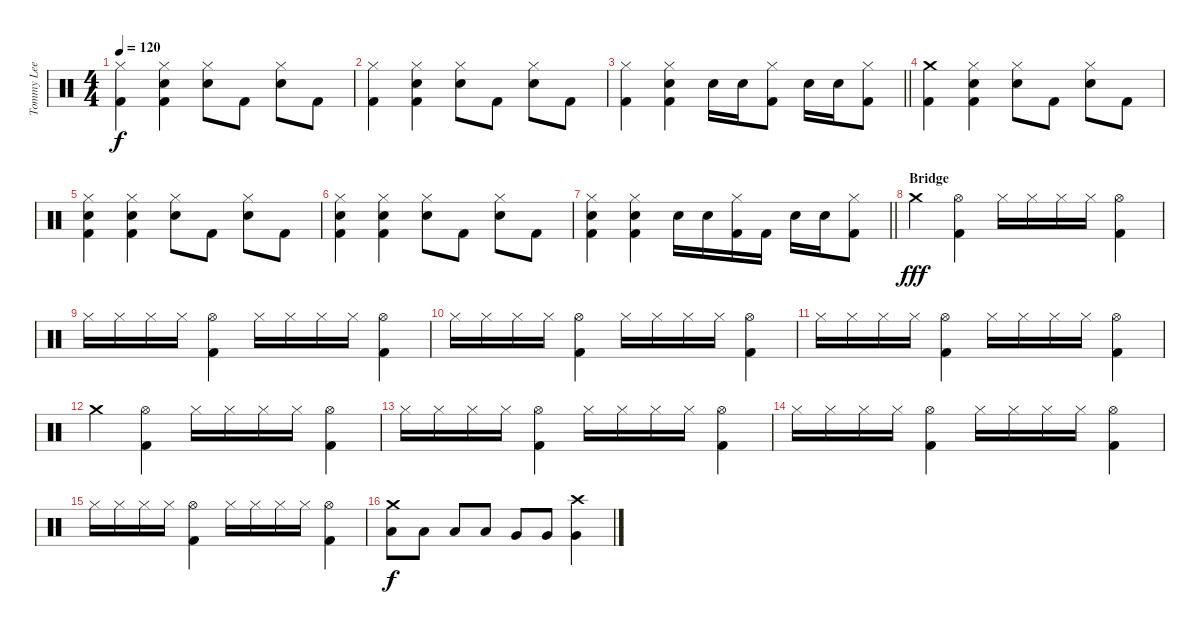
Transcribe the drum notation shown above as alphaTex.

\track ("Tommy Lee - Drums" "Tommy Lee ") {instrument percussion}
\staff {score}
\articulation defaults
\ts (4 4)
\tempo 120
\clef neutral
\ks c
("Hi-Hat (closed)" "Kick (hit) 2").4{dy f} ("Hi-Hat (closed)" "Snare (hit) 2" "Kick (hit) 2").4 ("Hi-Hat (closed)" "Snare (hit) 2").8 "Kick (hit) 2".8 ("Hi-Hat (closed)" "Snare (hit) 2").8 "Kick (hit) 2".8 |
("Hi-Hat (closed)" "Kick (hit) 2").4 ("Hi-Hat (closed)" "Snare (hit) 2" "Kick (hit) 2").4 ("Hi-Hat (closed)" "Snare (hit) 2").8 "Kick (hit) 2".8 ("Hi-Hat (closed)" "Snare (hit) 2").8 "Kick (hit) 2".8 |
\barLineRight lightlight
("Hi-Hat (closed)" "Kick (hit) 2").4 ("Hi-Hat (closed)" "Snare (hit) 2" "Kick (hit) 2").4 "Snare (hit) 2".16 "Snare (hit) 2".16 ("Hi-Hat (closed)" "Kick (hit) 2").8 "Snare (hit) 2".16 "Snare (hit) 2".16 ("Hi-Hat (closed)" "Kick (hit) 2").8 |
("Crash medium (hit)" "Kick (hit) 2").4 ("Hi-Hat (closed)" "Snare (hit) 2" "Kick (hit) 2").4 ("Hi-Hat (closed)" "Snare (hit) 2").8 "Kick (hit) 2".8 ("Hi-Hat (closed)" "Snare (hit) 2").8 "Kick (hit) 2".8 |
("Hi-Hat (closed)" "Snare (hit) 2" "Kick (hit) 2").4 ("Hi-Hat (closed)" "Snare (hit) 2" "Kick (hit) 2").4 ("Hi-Hat (closed)" "Snare (hit) 2").8 "Kick (hit) 2".8 ("Hi-Hat (closed)" "Snare (hit) 2").8 "Kick (hit) 2".8 |
("Hi-Hat (closed)" "Snare (hit) 2" "Kick (hit) 2").4 ("Hi-Hat (closed)" "Snare (hit) 2" "Kick (hit) 2").4 ("Hi-Hat (closed)" "Snare (hit) 2").8 "Kick (hit) 2".8 ("Hi-Hat (closed)" "Snare (hit) 2").8 "Kick (hit) 2".8 |
\barLineRight lightlight
("Hi-Hat (closed)" "Snare (hit) 2" "Kick (hit) 2").4 ("Hi-Hat (closed)" "Snare (hit) 2" "Kick (hit) 2").4 "Snare (hit) 2".16 "Snare (hit) 2".16 ("Hi-Hat (closed)" "Kick (hit) 2").16 "Kick (hit) 2".16 "Snare (hit) 2".16 "Snare (hit) 2".16 ("Hi-Hat (closed)" "Kick (hit) 2").8 |
\section ("" "Bridge")
"Crash medium (hit)".4{dy fff} ("Hi-Hat (open)" "Kick (hit) 2").4 "Hi-Hat (closed)".16 "Hi-Hat (closed)".16 "Hi-Hat (closed)".16 "Hi-Hat (closed)".16 ("Hi-Hat (open)" "Kick (hit) 2").4 |
"Hi-Hat (closed)".16 "Hi-Hat (closed)".16 "Hi-Hat (closed)".16 "Hi-Hat (closed)".16 ("Hi-Hat (open)" "Kick (hit) 2").4 "Hi-Hat (closed)".16 "Hi-Hat (closed)".16 "Hi-Hat (closed)".16 "Hi-Hat (closed)".16 ("Hi-Hat (open)" "Kick (hit) 2").4 |
"Hi-Hat (closed)".16 "Hi-Hat (closed)".16 "Hi-Hat (closed)".16 "Hi-Hat (closed)".16 ("Hi-Hat (open)" "Kick (hit) 2").4 "Hi-Hat (closed)".16 "Hi-Hat (closed)".16 "Hi-Hat (closed)".16 "Hi-Hat (closed)".16 ("Hi-Hat (open)" "Kick (hit) 2").4 |
"Hi-Hat (closed)".16 "Hi-Hat (closed)".16 "Hi-Hat (closed)".16 "Hi-Hat (closed)".16 ("Hi-Hat (open)" "Kick (hit) 2").4 "Hi-Hat (closed)".16 "Hi-Hat (closed)".16 "Hi-Hat (closed)".16 "Hi-Hat (closed)".16 ("Hi-Hat (open)" "Kick (hit) 2").4 |
"Crash medium (hit)".4 ("Hi-Hat (open)" "Kick (hit) 2").4 "Hi-Hat (closed)".16 "Hi-Hat (closed)".16 "Hi-Hat (closed)".16 "Hi-Hat (closed)".16 ("Hi-Hat (open)" "Kick (hit) 2").4 |
"Hi-Hat (closed)".16 "Hi-Hat (closed)".16 "Hi-Hat (closed)".16 "Hi-Hat (closed)".16 ("Hi-Hat (open)" "Kick (hit) 2").4 "Hi-Hat (closed)".16 "Hi-Hat (closed)".16 "Hi-Hat (closed)".16 "Hi-Hat (closed)".16 ("Hi-Hat (open)" "Kick (hit) 2").4 |
"Hi-Hat (closed)".16 "Hi-Hat (closed)".16 "Hi-Hat (closed)".16 "Hi-Hat (closed)".16 ("Hi-Hat (open)" "Kick (hit) 2").4 "Hi-Hat (closed)".16 "Hi-Hat (closed)".16 "Hi-Hat (closed)".16 "Hi-Hat (closed)".16 ("Hi-Hat (open)" "Kick (hit) 2").4 |
"Hi-Hat (closed)".16 "Hi-Hat (closed)".16 "Hi-Hat (closed)".16 "Hi-Hat (closed)".16 ("Hi-Hat (open)" "Kick (hit) 2").4 "Hi-Hat (closed)".16 "Hi-Hat (closed)".16 "Hi-Hat (closed)".16 "Hi-Hat (closed)".16 ("Hi-Hat (open)" "Kick (hit) 2").4 |
("Crash medium (hit)" "Low Tom (hit)").8{dy f} "Low Tom (hit)".8 "Low Tom (hit)".8 "Low Tom (hit)".8 "Very Low Tom (hit)".8 "Very Low Tom (hit)".8 ("Crash high (hit)" "Very Low Tom (hit)").4
